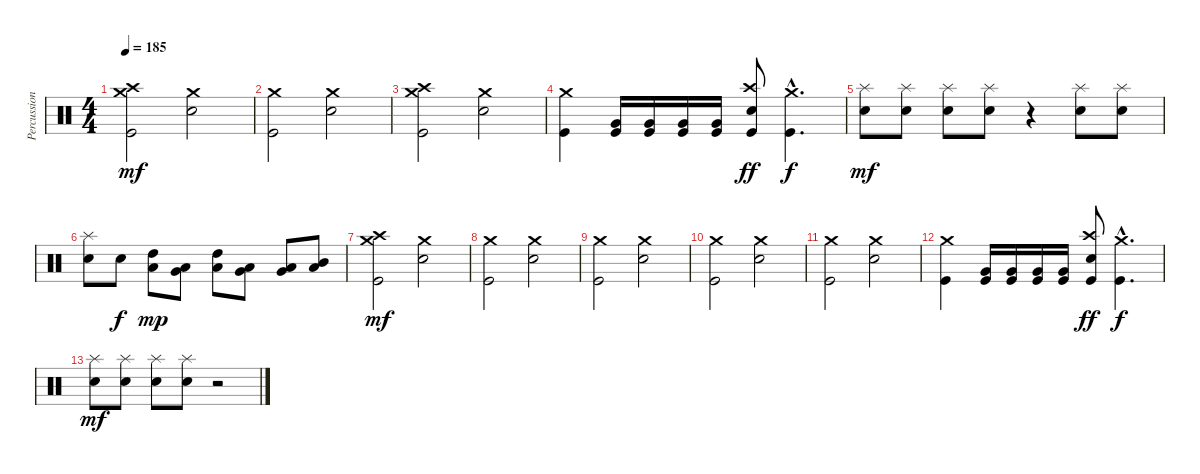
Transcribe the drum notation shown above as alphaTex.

\track ("Percussions" "Percussion") {instrument percussion}
\staff {score}
\articulation defaults
\ts (4 4)
\tempo 185
\clef neutral
\ks c
("Kick (hit)" "Crash medium (hit)" "Crash high (hit)").2{dy mf} ("Electric Snare (hit)" "Crash medium (hit)").2 |
("Kick (hit)" "Crash medium (hit)").2 ("Electric Snare (hit)" "Crash medium (hit)").2 |
("Kick (hit)" "Crash medium (hit)" "Crash high (hit)").2 ("Electric Snare (hit)" "Crash medium (hit)").2 |
("Kick (hit)" "Crash medium (hit)").4 ("Kick (hit)" "Very Low Tom (hit)").16 ("Kick (hit)" "Very Low Tom (hit)").16 ("Kick (hit)" "Very Low Tom (hit)").16 ("Kick (hit)" "Very Low Tom (hit)").16 ("Kick (hit)" "Electric Snare (hit)" "Crash high (hit)").8{dy ff} ("Kick (hit)"{hac} "Crash medium (hit)"{hac}).4{d dy f} |
("Electric Snare (hit)" "Splash (hit)").8{dy mf} ("Electric Snare (hit)" "Splash (hit)").8 ("Electric Snare (hit)" "Splash (hit)").8 ("Electric Snare (hit)" "Splash (hit)").8 r.4 ("Electric Snare (hit)" "Splash (hit)").8 ("Electric Snare (hit)" "Splash (hit)").8 |
("Electric Snare (hit)" "Splash (hit)").8 "Electric Snare (hit)".8{dy f} ("Low Floor Tom (hit)" "High Tom (hit)").8{dy mp} ("Very Low Tom (hit)" "Low Floor Tom (hit)").8 ("Low Floor Tom (hit)" "High Tom (hit)").8 ("Very Low Tom (hit)" "Low Floor Tom (hit)").8 ("Low Tom (hit)" "Very Low Tom (hit)").8 ("Mid Tom (hit)" "Low Tom (hit)").8 |
("Kick (hit)" "Crash medium (hit)" "Crash high (hit)").2{dy mf} ("Electric Snare (hit)" "Crash medium (hit)").2 |
("Kick (hit)" "Crash medium (hit)").2 ("Electric Snare (hit)" "Crash medium (hit)").2 |
("Kick (hit)" "Crash medium (hit)").2 ("Electric Snare (hit)" "Crash medium (hit)").2 |
("Kick (hit)" "Crash medium (hit)").2 ("Electric Snare (hit)" "Crash medium (hit)").2 |
("Kick (hit)" "Crash medium (hit)").2 ("Electric Snare (hit)" "Crash medium (hit)").2 |
("Kick (hit)" "Crash medium (hit)").4 ("Kick (hit)" "Very Low Tom (hit)").16 ("Kick (hit)" "Very Low Tom (hit)").16 ("Kick (hit)" "Very Low Tom (hit)").16 ("Kick (hit)" "Very Low Tom (hit)").16 ("Kick (hit)" "Electric Snare (hit)" "Crash high (hit)").8{dy ff} ("Kick (hit)"{hac} "Crash medium (hit)"{hac}).4{d dy f} |
("Electric Snare (hit)" "Splash (hit)").8{dy mf} ("Electric Snare (hit)" "Splash (hit)").8 ("Electric Snare (hit)" "Splash (hit)").8 ("Electric Snare (hit)" "Splash (hit)").8 r.2
